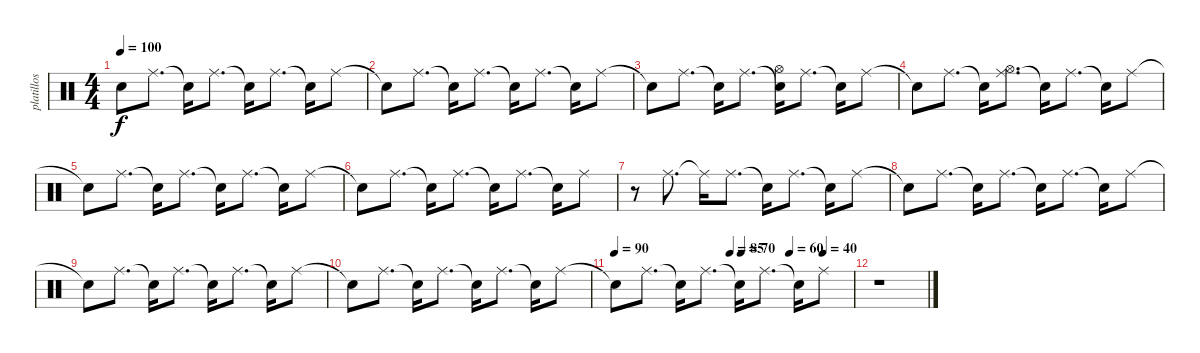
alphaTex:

\track ("platillos" "platillos") {instrument percussion}
\staff {score}
\articulation defaults
\ts (4 4)
\tempo 100
\clef neutral
\ks c "Snare (hit)"{t}.8{dy f} "Ride (middle)".8{d} "Snare (hit)"{t}.16 "Ride (middle)".8{d} "Snare (hit)"{t}.16 "Ride (middle)".8{d} "Snare (hit)"{t}.16 "Ride (middle)".8
|
"Snare (hit)"{t}.8 "Ride (middle)".8{d} "Snare (hit)"{t}.16 "Ride (middle)".8{d} "Snare (hit)"{t}.16 "Ride (middle)".8{d} "Snare (hit)"{t}.16 "Ride (middle)".8 |
"Snare (hit)"{t}.8 "Ride (middle)".8{d} "Snare (hit)"{t}.16 "Ride (middle)".8{d} ("Snare (hit)"{t} "Hi-Hat (open)").16 "Ride (middle)".8{d} "Snare (hit)"{t}.16 "Ride (middle)".8 |
"Snare (hit)"{t}.8 "Ride (middle)".8{d} "Snare (hit)"{t}.16 ("Ride (middle)" "Hi-Hat (open)").8{d} "Snare (hit)"{t}.16 "Ride (middle)".8{d} "Snare (hit)"{t}.16 "Ride (middle)".8 |
"Snare (hit)"{t}.8 "Ride (middle)".8{d} "Snare (hit)"{t}.16 "Ride (middle)".8{d} "Snare (hit)"{t}.16 "Ride (middle)".8{d} "Snare (hit)"{t}.16 "Ride (middle)".8 |
"Snare (hit)"{t}.8 "Ride (middle)".8{d} "Snare (hit)"{t}.16 "Ride (middle)".8{d} "Snare (hit)"{t}.16 "Ride (middle)".8{d} "Snare (hit)"{t}.16 "Ride (middle)".8 |
r.8 "Ride (middle)".8{d} "Ride (middle)"{t}.16 "Ride (middle)".8{d} "Snare (hit)"{t}.16 "Ride (middle)".8{d} "Snare (hit)"{t}.16 "Ride (middle)".8 |
"Snare (hit)"{t}.8 "Ride (middle)".8{d} "Snare (hit)"{t}.16 "Ride (middle)".8{d} "Snare (hit)"{t}.16 "Ride (middle)".8{d} "Snare (hit)"{t}.16 "Ride (middle)".8 |
"Snare (hit)"{t}.8 "Ride (middle)".8{d} "Snare (hit)"{t}.16 "Ride (middle)".8{d} "Snare (hit)"{t}.16 "Ride (middle)".8{d} "Snare (hit)"{t}.16 "Ride (middle)".8 |
"Snare (hit)"{t}.8 "Ride (middle)".8{d} "Snare (hit)"{t}.16 "Ride (middle)".8{d} "Snare (hit)"{t}.16 "Ride (middle)".8{d} "Snare (hit)"{t}.16 "Ride (middle)".8 |
\tempo 90
\tempo (85 0.484375)
\tempo (60 0.734375)
\tempo (40 0.875)
\tempo (70 0.53125)
"Snare (hit)"{t}.8 "Ride (middle)".8{d} "Snare (hit)"{t}.16 "Ride (middle)".8{d} "Snare (hit)"{t}.16 "Ride (middle)".8{d} "Snare (hit)"{t}.16 "Ride (middle)".8 |
r.1
